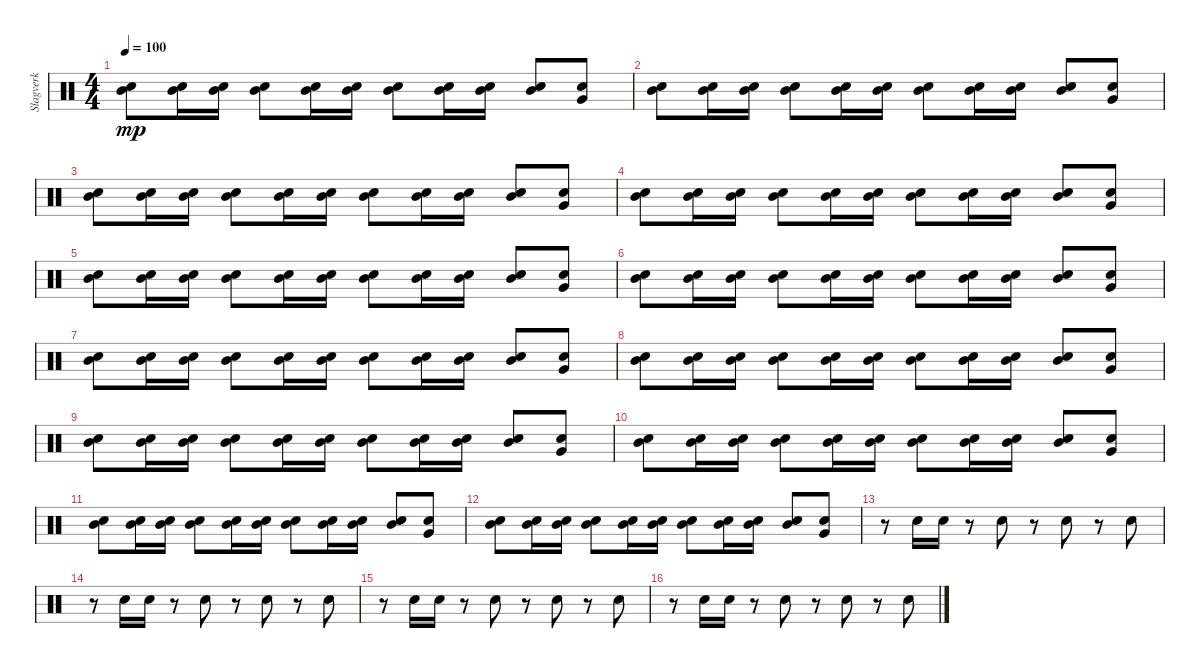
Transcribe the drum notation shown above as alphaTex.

\track ("Slagverk" "Slagverk") {instrument percussion}
\staff {score}
\articulation defaults
\ts (4 4)
\tempo 100
\clef neutral
\ks c
("Mid Tom (hit)" "Snare (hit) 2").8{dy mp} ("Mid Tom (hit)" "Snare (hit) 2").16 ("Mid Tom (hit)" "Snare (hit) 2").16 ("Mid Tom (hit)" "Snare (hit) 2").8 ("Mid Tom (hit)" "Snare (hit) 2").16 ("Mid Tom (hit)" "Snare (hit) 2").16 ("Mid Tom (hit)" "Snare (hit) 2").8 ("Mid Tom (hit)" "Snare (hit) 2").16 ("Mid Tom (hit)" "Snare (hit) 2").16 ("Mid Tom (hit)" "Snare (hit) 2").8 ("Very Low Tom (hit)" "Snare (hit) 2").8 |
("Mid Tom (hit)" "Snare (hit) 2").8 ("Mid Tom (hit)" "Snare (hit) 2").16 ("Mid Tom (hit)" "Snare (hit) 2").16 ("Mid Tom (hit)" "Snare (hit) 2").8 ("Mid Tom (hit)" "Snare (hit) 2").16 ("Mid Tom (hit)" "Snare (hit) 2").16 ("Mid Tom (hit)" "Snare (hit) 2").8 ("Mid Tom (hit)" "Snare (hit) 2").16 ("Mid Tom (hit)" "Snare (hit) 2").16 ("Mid Tom (hit)" "Snare (hit) 2").8 ("Very Low Tom (hit)" "Snare (hit) 2").8 |
("Mid Tom (hit)" "Snare (hit) 2").8 ("Mid Tom (hit)" "Snare (hit) 2").16 ("Mid Tom (hit)" "Snare (hit) 2").16 ("Mid Tom (hit)" "Snare (hit) 2").8 ("Mid Tom (hit)" "Snare (hit) 2").16 ("Mid Tom (hit)" "Snare (hit) 2").16 ("Mid Tom (hit)" "Snare (hit) 2").8 ("Mid Tom (hit)" "Snare (hit) 2").16 ("Mid Tom (hit)" "Snare (hit) 2").16 ("Mid Tom (hit)" "Snare (hit) 2").8 ("Very Low Tom (hit)" "Snare (hit) 2").8 |
("Mid Tom (hit)" "Snare (hit) 2").8 ("Mid Tom (hit)" "Snare (hit) 2").16 ("Mid Tom (hit)" "Snare (hit) 2").16 ("Mid Tom (hit)" "Snare (hit) 2").8 ("Mid Tom (hit)" "Snare (hit) 2").16 ("Mid Tom (hit)" "Snare (hit) 2").16 ("Mid Tom (hit)" "Snare (hit) 2").8 ("Mid Tom (hit)" "Snare (hit) 2").16 ("Mid Tom (hit)" "Snare (hit) 2").16 ("Mid Tom (hit)" "Snare (hit) 2").8 ("Very Low Tom (hit)" "Snare (hit) 2").8 |
("Mid Tom (hit)" "Snare (hit) 2").8 ("Mid Tom (hit)" "Snare (hit) 2").16 ("Mid Tom (hit)" "Snare (hit) 2").16 ("Mid Tom (hit)" "Snare (hit) 2").8 ("Mid Tom (hit)" "Snare (hit) 2").16 ("Mid Tom (hit)" "Snare (hit) 2").16 ("Mid Tom (hit)" "Snare (hit) 2").8 ("Mid Tom (hit)" "Snare (hit) 2").16 ("Mid Tom (hit)" "Snare (hit) 2").16 ("Mid Tom (hit)" "Snare (hit) 2").8 ("Very Low Tom (hit)" "Snare (hit) 2").8 |
("Mid Tom (hit)" "Snare (hit) 2").8 ("Mid Tom (hit)" "Snare (hit) 2").16 ("Mid Tom (hit)" "Snare (hit) 2").16 ("Mid Tom (hit)" "Snare (hit) 2").8 ("Mid Tom (hit)" "Snare (hit) 2").16 ("Mid Tom (hit)" "Snare (hit) 2").16 ("Mid Tom (hit)" "Snare (hit) 2").8 ("Mid Tom (hit)" "Snare (hit) 2").16 ("Mid Tom (hit)" "Snare (hit) 2").16 ("Mid Tom (hit)" "Snare (hit) 2").8 ("Very Low Tom (hit)" "Snare (hit) 2").8 |
("Mid Tom (hit)" "Snare (hit) 2").8 ("Mid Tom (hit)" "Snare (hit) 2").16 ("Mid Tom (hit)" "Snare (hit) 2").16 ("Mid Tom (hit)" "Snare (hit) 2").8 ("Mid Tom (hit)" "Snare (hit) 2").16 ("Mid Tom (hit)" "Snare (hit) 2").16 ("Mid Tom (hit)" "Snare (hit) 2").8 ("Mid Tom (hit)" "Snare (hit) 2").16 ("Mid Tom (hit)" "Snare (hit) 2").16 ("Mid Tom (hit)" "Snare (hit) 2").8 ("Very Low Tom (hit)" "Snare (hit) 2").8 |
("Mid Tom (hit)" "Snare (hit) 2").8 ("Mid Tom (hit)" "Snare (hit) 2").16 ("Mid Tom (hit)" "Snare (hit) 2").16 ("Mid Tom (hit)" "Snare (hit) 2").8 ("Mid Tom (hit)" "Snare (hit) 2").16 ("Mid Tom (hit)" "Snare (hit) 2").16 ("Mid Tom (hit)" "Snare (hit) 2").8 ("Mid Tom (hit)" "Snare (hit) 2").16 ("Mid Tom (hit)" "Snare (hit) 2").16 ("Mid Tom (hit)" "Snare (hit) 2").8 ("Very Low Tom (hit)" "Snare (hit) 2").8 |
("Mid Tom (hit)" "Snare (hit) 2").8 ("Mid Tom (hit)" "Snare (hit) 2").16 ("Mid Tom (hit)" "Snare (hit) 2").16 ("Mid Tom (hit)" "Snare (hit) 2").8 ("Mid Tom (hit)" "Snare (hit) 2").16 ("Mid Tom (hit)" "Snare (hit) 2").16 ("Mid Tom (hit)" "Snare (hit) 2").8 ("Mid Tom (hit)" "Snare (hit) 2").16 ("Mid Tom (hit)" "Snare (hit) 2").16 ("Mid Tom (hit)" "Snare (hit) 2").8 ("Very Low Tom (hit)" "Snare (hit) 2").8 |
("Mid Tom (hit)" "Snare (hit) 2").8 ("Mid Tom (hit)" "Snare (hit) 2").16 ("Mid Tom (hit)" "Snare (hit) 2").16 ("Mid Tom (hit)" "Snare (hit) 2").8 ("Mid Tom (hit)" "Snare (hit) 2").16 ("Mid Tom (hit)" "Snare (hit) 2").16 ("Mid Tom (hit)" "Snare (hit) 2").8 ("Mid Tom (hit)" "Snare (hit) 2").16 ("Mid Tom (hit)" "Snare (hit) 2").16 ("Mid Tom (hit)" "Snare (hit) 2").8 ("Very Low Tom (hit)" "Snare (hit) 2").8 |
("Mid Tom (hit)" "Snare (hit) 2").8 ("Mid Tom (hit)" "Snare (hit) 2").16 ("Mid Tom (hit)" "Snare (hit) 2").16 ("Mid Tom (hit)" "Snare (hit) 2").8 ("Mid Tom (hit)" "Snare (hit) 2").16 ("Mid Tom (hit)" "Snare (hit) 2").16 ("Mid Tom (hit)" "Snare (hit) 2").8 ("Mid Tom (hit)" "Snare (hit) 2").16 ("Mid Tom (hit)" "Snare (hit) 2").16 ("Mid Tom (hit)" "Snare (hit) 2").8 ("Very Low Tom (hit)" "Snare (hit) 2").8 |
("Mid Tom (hit)" "Snare (hit) 2").8 ("Mid Tom (hit)" "Snare (hit) 2").16 ("Mid Tom (hit)" "Snare (hit) 2").16 ("Mid Tom (hit)" "Snare (hit) 2").8 ("Mid Tom (hit)" "Snare (hit) 2").16 ("Mid Tom (hit)" "Snare (hit) 2").16 ("Mid Tom (hit)" "Snare (hit) 2").8 ("Mid Tom (hit)" "Snare (hit) 2").16 ("Mid Tom (hit)" "Snare (hit) 2").16 ("Mid Tom (hit)" "Snare (hit) 2").8 ("Very Low Tom (hit)" "Snare (hit) 2").8 |
r.8 "Snare (hit) 2".16 "Snare (hit) 2".16 r.8 "Snare (hit) 2".8 r.8 "Snare (hit) 2".8 r.8 "Snare (hit) 2".8 |
r.8 "Snare (hit) 2".16 "Snare (hit) 2".16 r.8 "Snare (hit) 2".8 r.8 "Snare (hit) 2".8 r.8 "Snare (hit) 2".8 |
r.8 "Snare (hit) 2".16 "Snare (hit) 2".16 r.8 "Snare (hit) 2".8 r.8 "Snare (hit) 2".8 r.8 "Snare (hit) 2".8 |
r.8 "Snare (hit) 2".16 "Snare (hit) 2".16 r.8 "Snare (hit) 2".8 r.8 "Snare (hit) 2".8 r.8 "Snare (hit) 2".8
